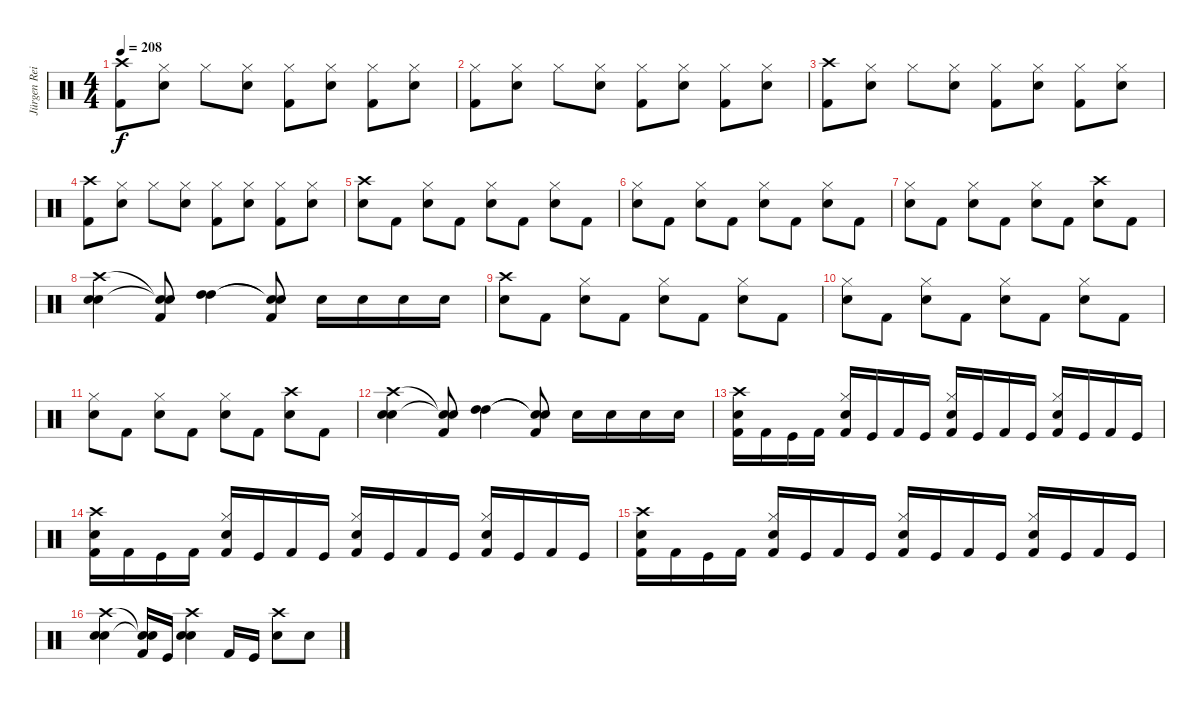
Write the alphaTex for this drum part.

\track ("Jürgen Reil" "Jürgen Rei") {instrument percussion}
\staff {score}
\articulation defaults
\ts (4 4)
\tempo 208
\clef neutral
\ks c
("Crash high (hit)" "Kick (hit) 2").8{dy f} ("Hi-Hat (closed)" "Electric Snare (hit)").8 "Hi-Hat (closed)".8 ("Hi-Hat (closed)" "Electric Snare (hit)").8 ("Hi-Hat (closed)" "Kick (hit) 2").8 ("Hi-Hat (closed)" "Electric Snare (hit)").8 ("Hi-Hat (closed)" "Kick (hit) 2").8 ("Hi-Hat (closed)" "Electric Snare (hit)").8 |
("Hi-Hat (closed)" "Kick (hit) 2").8 ("Hi-Hat (closed)" "Electric Snare (hit)").8 "Hi-Hat (closed)".8 ("Hi-Hat (closed)" "Electric Snare (hit)").8 ("Hi-Hat (closed)" "Kick (hit) 2").8 ("Hi-Hat (closed)" "Electric Snare (hit)").8 ("Hi-Hat (closed)" "Kick (hit) 2").8 ("Hi-Hat (closed)" "Electric Snare (hit)").8 |
("Crash high (hit)" "Kick (hit) 2").8 ("Hi-Hat (closed)" "Electric Snare (hit)").8 "Hi-Hat (closed)".8 ("Hi-Hat (closed)" "Electric Snare (hit)").8 ("Hi-Hat (closed)" "Kick (hit) 2").8 ("Hi-Hat (closed)" "Electric Snare (hit)").8 ("Hi-Hat (closed)" "Kick (hit) 2").8 ("Hi-Hat (closed)" "Electric Snare (hit)").8 |
("Crash high (hit)" "Kick (hit) 2").8 ("Hi-Hat (closed)" "Electric Snare (hit)").8 "Hi-Hat (closed)".8 ("Hi-Hat (closed)" "Electric Snare (hit)").8 ("Hi-Hat (closed)" "Kick (hit) 2").8 ("Hi-Hat (closed)" "Electric Snare (hit)").8 ("Hi-Hat (closed)" "Kick (hit) 2").8 ("Hi-Hat (closed)" "Electric Snare (hit)").8 |
("Crash high (hit)" "Electric Snare (hit)").8 "Kick (hit) 2".8 ("Hi-Hat (closed)" "Electric Snare (hit)").8 "Kick (hit) 2".8 ("Hi-Hat (closed)" "Electric Snare (hit)").8 "Kick (hit) 2".8 ("Hi-Hat (closed)" "Electric Snare (hit)").8 "Kick (hit) 2".8 |
("Hi-Hat (closed)" "Electric Snare (hit)").8 "Kick (hit) 2".8 ("Hi-Hat (closed)" "Electric Snare (hit)").8 "Kick (hit) 2".8 ("Hi-Hat (closed)" "Electric Snare (hit)").8 "Kick (hit) 2".8 ("Hi-Hat (closed)" "Electric Snare (hit)").8 "Kick (hit) 2".8 |
("Hi-Hat (closed)" "Electric Snare (hit)").8 "Kick (hit) 2".8 ("Hi-Hat (closed)" "Electric Snare (hit)").8 "Kick (hit) 2".8 ("Hi-Hat (closed)" "Electric Snare (hit)").8 "Kick (hit) 2".8 ("Crash high (hit)" "Electric Snare (hit)").8 "Kick (hit) 2".8 |
("Crash high (hit)" "Electric Snare (hit)" "Electric Snare (hit)").4 ("Snare (hit)"{t} "Snare (hit)"{t} "Kick (hit) 2").8 ("High Tom (hit)" "High Tom (hit)").4 ("Snare (hit)"{t} "Electric Snare (hit)"{t} "Kick (hit) 2").8 "Electric Snare (hit)".16 "Electric Snare (hit)".16 "Electric Snare (hit)".16 "Electric Snare (hit)".16 |
("Crash high (hit)" "Electric Snare (hit)").8 "Kick (hit) 2".8 ("Hi-Hat (closed)" "Electric Snare (hit)").8 "Kick (hit) 2".8 ("Hi-Hat (closed)" "Electric Snare (hit)").8 "Kick (hit) 2".8 ("Hi-Hat (closed)" "Electric Snare (hit)").8 "Kick (hit) 2".8 |
("Hi-Hat (closed)" "Electric Snare (hit)").8 "Kick (hit) 2".8 ("Hi-Hat (closed)" "Electric Snare (hit)").8 "Kick (hit) 2".8 ("Hi-Hat (closed)" "Electric Snare (hit)").8 "Kick (hit) 2".8 ("Hi-Hat (closed)" "Electric Snare (hit)").8 "Kick (hit) 2".8 |
("Hi-Hat (closed)" "Electric Snare (hit)").8 "Kick (hit) 2".8 ("Hi-Hat (closed)" "Electric Snare (hit)").8 "Kick (hit) 2".8 ("Hi-Hat (closed)" "Electric Snare (hit)").8 "Kick (hit) 2".8 ("Crash high (hit)" "Electric Snare (hit)").8 "Kick (hit) 2".8 |
("Crash high (hit)" "Electric Snare (hit)" "Electric Snare (hit)").4 ("Snare (hit)"{t} "Snare (hit)"{t} "Kick (hit) 2").8 ("High Tom (hit)" "High Tom (hit)").4 ("Snare (hit)"{t} "Electric Snare (hit)"{t} "Kick (hit) 2").8 "Electric Snare (hit)".16 "Electric Snare (hit)".16 "Electric Snare (hit)".16 "Electric Snare (hit)".16 |
("Crash high (hit)" "Electric Snare (hit)" "Kick (hit) 2").16 "Kick (hit) 2".16 "Kick (hit)".16 "Kick (hit) 2".16 ("Hi-Hat (closed)" "Electric Snare (hit)" "Kick (hit) 2").16 "Kick (hit)".16 "Kick (hit) 2".16 "Kick (hit)".16 ("Hi-Hat (closed)" "Electric Snare (hit)" "Kick (hit) 2").16 "Kick (hit)".16 "Kick (hit) 2".16 "Kick (hit)".16 ("Hi-Hat (closed)" "Electric Snare (hit)" "Kick (hit) 2").16 "Kick (hit)".16 "Kick (hit) 2".16 "Kick (hit)".16 |
("Crash high (hit)" "Electric Snare (hit)" "Kick (hit) 2").16 "Kick (hit) 2".16 "Kick (hit)".16 "Kick (hit) 2".16 ("Hi-Hat (closed)" "Electric Snare (hit)" "Kick (hit) 2").16 "Kick (hit)".16 "Kick (hit) 2".16 "Kick (hit)".16 ("Hi-Hat (closed)" "Electric Snare (hit)" "Kick (hit) 2").16 "Kick (hit)".16 "Kick (hit) 2".16 "Kick (hit)".16 ("Hi-Hat (closed)" "Electric Snare (hit)" "Kick (hit) 2").16 "Kick (hit)".16 "Kick (hit) 2".16 "Kick (hit)".16 |
("Crash high (hit)" "Electric Snare (hit)" "Kick (hit) 2").16 "Kick (hit) 2".16 "Kick (hit)".16 "Kick (hit) 2".16 ("Hi-Hat (closed)" "Electric Snare (hit)" "Kick (hit) 2").16 "Kick (hit)".16 "Kick (hit) 2".16 "Kick (hit)".16 ("Hi-Hat (closed)" "Electric Snare (hit)" "Kick (hit) 2").16 "Kick (hit)".16 "Kick (hit) 2".16 "Kick (hit)".16 ("Hi-Hat (closed)" "Electric Snare (hit)" "Kick (hit) 2").16 "Kick (hit)".16 "Kick (hit) 2".16 "Kick (hit)".16 |
("Crash high (hit)" "Electric Snare (hit)" "Electric Snare (hit)").4 ("Snare (hit)"{t} "Snare (hit)"{t} "Kick (hit) 2").16 "Kick (hit)".16 ("Crash high (hit)" "Electric Snare (hit)" "Electric Snare (hit)").4 "Kick (hit) 2".16 "Kick (hit)".16 ("Crash high (hit)" "Electric Snare (hit)").8 "Electric Snare (hit)".8
